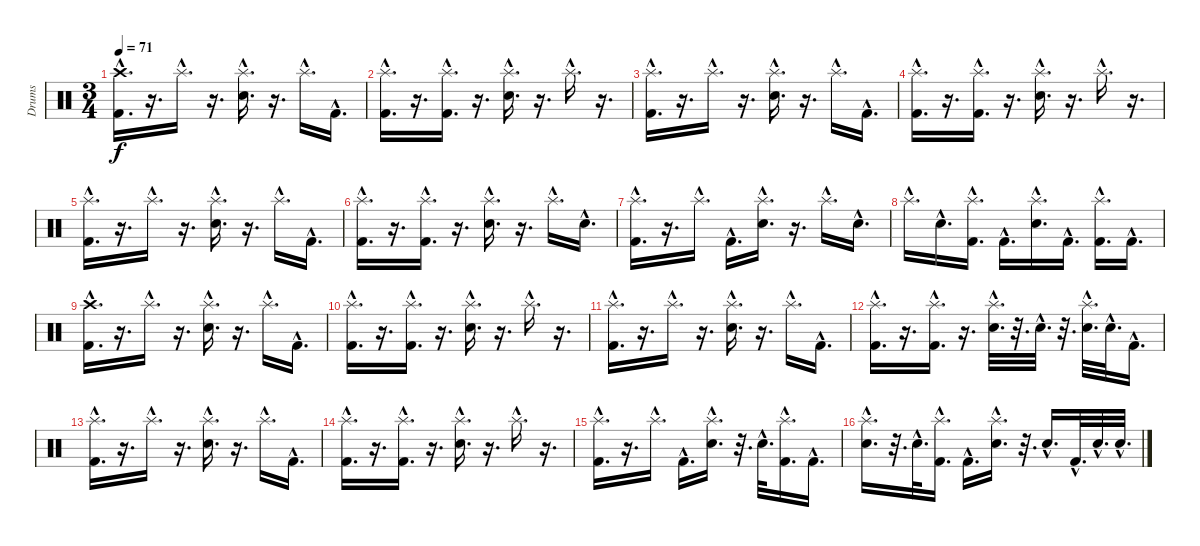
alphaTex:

\track ("Drums" "Drums") {instrument percussion}
\staff {score}
\articulation defaults
\ts (3 4)
\tempo 71
\clef neutral
\ks c
("Crash high (hit)"{hac} "Kick (hit) 2"{hac}).16{d dy f} r.16{d} "Splash (hit)"{hac}.16{d} r.16{d} ("Splash (hit)"{hac} "Snare (hit) 2"{hac}).16{d} r.16{d} "Splash (hit)"{hac}.16{d} "Kick (hit) 2"{hac}.16{d} |
("Splash (hit)"{hac} "Kick (hit) 2"{hac}).16{d} r.16{d} ("Splash (hit)"{hac} "Kick (hit) 2"{hac}).16{d} r.16{d} ("Splash (hit)"{hac} "Snare (hit) 2"{hac}).16{d} r.16{d} "Splash (hit)"{hac}.16{d} r.16{d} |
("Splash (hit)"{hac} "Kick (hit) 2"{hac}).16{d} r.16{d} "Splash (hit)"{hac}.16{d} r.16{d} ("Splash (hit)"{hac} "Snare (hit) 2"{hac}).16{d} r.16{d} "Splash (hit)"{hac}.16{d} "Kick (hit) 2"{hac}.16{d} |
("Splash (hit)"{hac} "Kick (hit) 2"{hac}).16{d} r.16{d} ("Splash (hit)"{hac} "Kick (hit) 2"{hac}).16{d} r.16{d} ("Splash (hit)"{hac} "Snare (hit) 2"{hac}).16{d} r.16{d} "Splash (hit)"{hac}.16{d} r.16{d} |
("Splash (hit)"{hac} "Kick (hit) 2"{hac}).16{d} r.16{d} "Splash (hit)"{hac}.16{d} r.16{d} ("Splash (hit)"{hac} "Snare (hit) 2"{hac}).16{d} r.16{d} "Splash (hit)"{hac}.16{d} "Kick (hit) 2"{hac}.16{d} |
("Splash (hit)"{hac} "Kick (hit) 2"{hac}).16{d} r.16{d} ("Splash (hit)"{hac} "Kick (hit) 2"{hac}).16{d} r.16{d} ("Splash (hit)"{hac} "Snare (hit) 2"{hac}).16{d} r.16{d} "Splash (hit)"{hac}.16{d} "Snare (hit) 2"{hac}.16{d} |
("Splash (hit)"{hac} "Kick (hit) 2"{hac}).16{d} r.16{d} "Splash (hit)"{hac}.16{d} "Kick (hit) 2"{hac}.16{d} ("Splash (hit)"{hac} "Snare (hit) 2"{hac}).16{d} r.16{d} "Splash (hit)"{hac}.16{d} "Snare (hit) 2"{hac}.16{d} |
"Splash (hit)"{hac}.16{d} "Snare (hit) 2"{hac}.16{d} ("Splash (hit)"{hac} "Kick (hit) 2"{hac}).16{d} "Kick (hit) 2"{hac}.16{d} ("Splash (hit)"{hac} "Snare (hit) 2"{hac}).16{d} "Kick (hit) 2"{hac}.16{d} ("Splash (hit)"{hac} "Kick (hit) 2"{hac}).16{d} "Kick (hit) 2"{hac}.16{d} |
("Crash high (hit)"{hac} "Kick (hit) 2"{hac}).16{d} r.16{d} "Splash (hit)"{hac}.16{d} r.16{d} ("Splash (hit)"{hac} "Snare (hit) 2"{hac}).16{d} r.16{d} "Splash (hit)"{hac}.16{d} "Kick (hit) 2"{hac}.16{d} |
("Splash (hit)"{hac} "Kick (hit) 2"{hac}).16{d} r.16{d} ("Splash (hit)"{hac} "Kick (hit) 2"{hac}).16{d} r.16{d} ("Splash (hit)"{hac} "Snare (hit) 2"{hac}).16{d} r.16{d} "Splash (hit)"{hac}.16{d} r.16{d} |
("Splash (hit)"{hac} "Kick (hit) 2"{hac}).16{d} r.16{d} "Splash (hit)"{hac}.16{d} r.16{d} ("Splash (hit)"{hac} "Snare (hit) 2"{hac}).16{d} r.16{d} "Splash (hit)"{hac}.16{d} "Kick (hit) 2"{hac}.16{d} |
("Splash (hit)"{hac} "Kick (hit) 2"{hac}).16{d} r.16{d} ("Splash (hit)"{hac} "Kick (hit) 2"{hac}).16{d} r.16{d} ("Splash (hit)"{hac} "Snare (hit) 2"{hac}).32{d} r.32{d} "Snare (hit) 2"{hac}.32{d} r.32{d} ("Splash (hit)"{hac} "Snare (hit) 2"{hac}).32{d} "Snare (hit) 2"{hac}.32{d} "Kick (hit) 2"{hac}.16{d} |
("Splash (hit)"{hac} "Kick (hit) 2"{hac}).16{d} r.16{d} "Splash (hit)"{hac}.16{d} r.16{d} ("Splash (hit)"{hac} "Snare (hit) 2"{hac}).16{d} r.16{d} "Splash (hit)"{hac}.16{d} "Kick (hit) 2"{hac}.16{d} |
("Splash (hit)"{hac} "Kick (hit) 2"{hac}).16{d} r.16{d} ("Splash (hit)"{hac} "Kick (hit) 2"{hac}).16{d} r.16{d} ("Splash (hit)"{hac} "Snare (hit) 2"{hac}).16{d} r.16{d} "Splash (hit)"{hac}.16{d} r.16{d} |
("Splash (hit)"{hac} "Kick (hit) 2"{hac}).16{d} r.16{d} "Splash (hit)"{hac}.16{d} "Kick (hit) 2"{hac}.16{d} ("Splash (hit)"{hac} "Snare (hit) 2"{hac}).16{d} r.32{d} "Snare (hit) 2"{hac}.32{d} ("Splash (hit)"{hac} "Kick (hit) 2"{hac}).16{d} "Kick (hit) 2"{hac}.16{d} |
("Splash (hit)"{hac} "Snare (hit) 2"{hac}).16{d} r.32{d} "Snare (hit) 2"{hac}.32{d} ("Splash (hit)"{hac} "Kick (hit) 2"{hac}).16{d} "Kick (hit) 2"{hac}.16{d} ("Splash (hit)"{hac} "Snare (hit) 2"{hac}).16{d} r.32{d} "Snare (hit) 2"{hac}.16{d} "Kick (hit) 2"{hac}.32{d} "Snare (hit) 2"{hac}.32{d} "Snare (hit) 2"{hac}.32{d}
